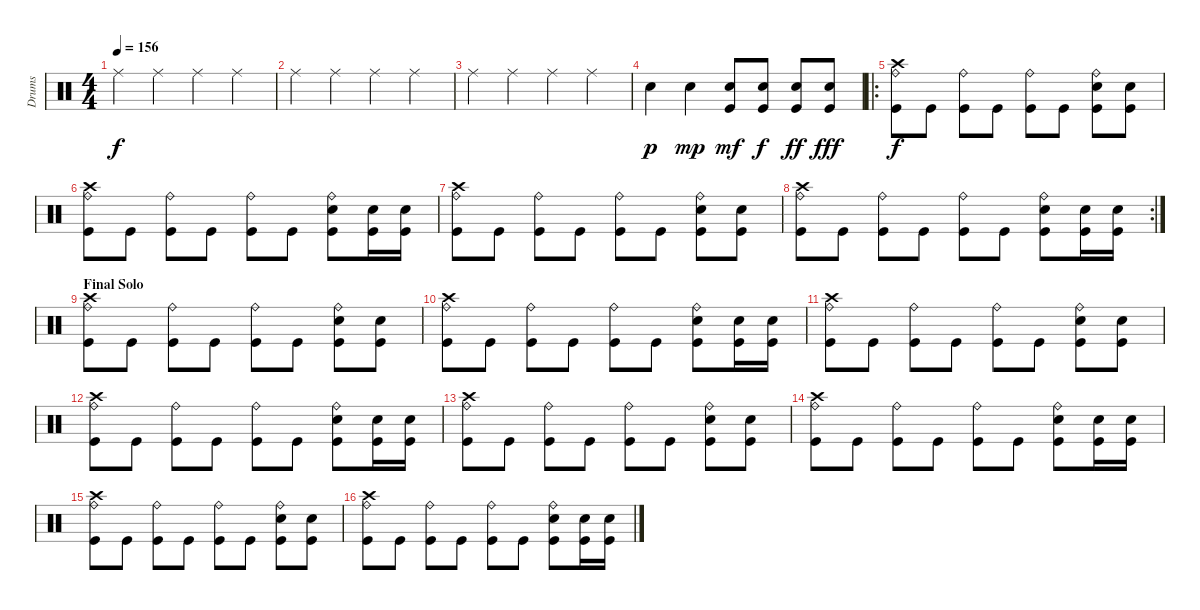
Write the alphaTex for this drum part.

\track ("Drums" "Drums") {instrument percussion}
\staff {score}
\articulation defaults
\ts (4 4)
\tempo 156
\clef neutral
\ks c "Ride (middle)".4{dy f} "Ride (middle)".4 "Ride (middle)".4 "Ride (middle)".4
|
"Ride (middle)".4 "Ride (middle)".4 "Ride (middle)".4 "Ride (middle)".4 |
"Ride (middle)".4 "Ride (middle)".4 "Ride (middle)".4 "Ride (middle)".4 |
"Electric Snare (hit)".4{dy p} "Electric Snare (hit)".4{dy mp} ("Electric Snare (hit)" "Kick (hit)").8{dy mf} ("Electric Snare (hit)" "Kick (hit)").8{dy f} ("Electric Snare (hit)" "Kick (hit)").8{dy ff} ("Electric Snare (hit)" "Kick (hit)").8{dy fff} |
\ro
("Crash high (hit)" "Kick (hit)" "Ride (bell)").8{dy f} "Kick (hit)".8 ("Kick (hit)" "Ride (bell)").8 "Kick (hit)".8 ("Kick (hit)" "Ride (bell)").8 "Kick (hit)".8 ("Electric Snare (hit)" "Kick (hit)" "Ride (bell)").8 ("Electric Snare (hit)" "Kick (hit)").8 |
("Crash high (hit)" "Kick (hit)" "Ride (bell)").8 "Kick (hit)".8 ("Kick (hit)" "Ride (bell)").8 "Kick (hit)".8 ("Kick (hit)" "Ride (bell)").8 "Kick (hit)".8 ("Electric Snare (hit)" "Kick (hit)" "Ride (bell)").8 ("Snare (hit) 2" "Kick (hit)").16 ("Snare (hit) 2" "Kick (hit)").16 |
("Crash high (hit)" "Kick (hit)" "Ride (bell)").8 "Kick (hit)".8 ("Kick (hit)" "Ride (bell)").8 "Kick (hit)".8 ("Kick (hit)" "Ride (bell)").8 "Kick (hit)".8 ("Electric Snare (hit)" "Kick (hit)" "Ride (bell)").8 ("Electric Snare (hit)" "Kick (hit)").8 |
\rc 2
("Crash high (hit)" "Kick (hit)" "Ride (bell)").8 "Kick (hit)".8 ("Kick (hit)" "Ride (bell)").8 "Kick (hit)".8 ("Kick (hit)" "Ride (bell)").8 "Kick (hit)".8 ("Electric Snare (hit)" "Kick (hit)" "Ride (bell)").8 ("Snare (hit) 2" "Kick (hit)").16 ("Snare (hit) 2" "Kick (hit)").16 |
\section ("" "Final Solo")
("Crash high (hit)" "Kick (hit)" "Ride (bell)").8 "Kick (hit)".8 ("Kick (hit)" "Ride (bell)").8 "Kick (hit)".8 ("Kick (hit)" "Ride (bell)").8 "Kick (hit)".8 ("Electric Snare (hit)" "Kick (hit)" "Ride (bell)").8 ("Electric Snare (hit)" "Kick (hit)").8 |
("Crash high (hit)" "Kick (hit)" "Ride (bell)").8 "Kick (hit)".8 ("Kick (hit)" "Ride (bell)").8 "Kick (hit)".8 ("Kick (hit)" "Ride (bell)").8 "Kick (hit)".8 ("Electric Snare (hit)" "Kick (hit)" "Ride (bell)").8 ("Snare (hit) 2" "Kick (hit)").16 ("Snare (hit) 2" "Kick (hit)").16 |
("Crash high (hit)" "Kick (hit)" "Ride (bell)").8 "Kick (hit)".8 ("Kick (hit)" "Ride (bell)").8 "Kick (hit)".8 ("Kick (hit)" "Ride (bell)").8 "Kick (hit)".8 ("Electric Snare (hit)" "Kick (hit)" "Ride (bell)").8 ("Electric Snare (hit)" "Kick (hit)").8 |
("Crash high (hit)" "Kick (hit)" "Ride (bell)").8 "Kick (hit)".8 ("Kick (hit)" "Ride (bell)").8 "Kick (hit)".8 ("Kick (hit)" "Ride (bell)").8 "Kick (hit)".8 ("Electric Snare (hit)" "Kick (hit)" "Ride (bell)").8 ("Snare (hit) 2" "Kick (hit)").16 ("Snare (hit) 2" "Kick (hit)").16 |
("Crash high (hit)" "Kick (hit)" "Ride (bell)").8 "Kick (hit)".8 ("Kick (hit)" "Ride (bell)").8 "Kick (hit)".8 ("Kick (hit)" "Ride (bell)").8 "Kick (hit)".8 ("Electric Snare (hit)" "Kick (hit)" "Ride (bell)").8 ("Electric Snare (hit)" "Kick (hit)").8 |
("Crash high (hit)" "Kick (hit)" "Ride (bell)").8 "Kick (hit)".8 ("Kick (hit)" "Ride (bell)").8 "Kick (hit)".8 ("Kick (hit)" "Ride (bell)").8 "Kick (hit)".8 ("Electric Snare (hit)" "Kick (hit)" "Ride (bell)").8 ("Snare (hit) 2" "Kick (hit)").16 ("Snare (hit) 2" "Kick (hit)").16 |
("Crash high (hit)" "Kick (hit)" "Ride (bell)").8 "Kick (hit)".8 ("Kick (hit)" "Ride (bell)").8 "Kick (hit)".8 ("Kick (hit)" "Ride (bell)").8 "Kick (hit)".8 ("Electric Snare (hit)" "Kick (hit)" "Ride (bell)").8 ("Electric Snare (hit)" "Kick (hit)").8 |
("Crash high (hit)" "Kick (hit)" "Ride (bell)").8{volume 10} "Kick (hit)".8 ("Kick (hit)" "Ride (bell)").8 "Kick (hit)".8 ("Kick (hit)" "Ride (bell)").8 "Kick (hit)".8 ("Electric Snare (hit)" "Kick (hit)" "Ride (bell)").8 ("Snare (hit) 2" "Kick (hit)").16 ("Snare (hit) 2" "Kick (hit)").16
